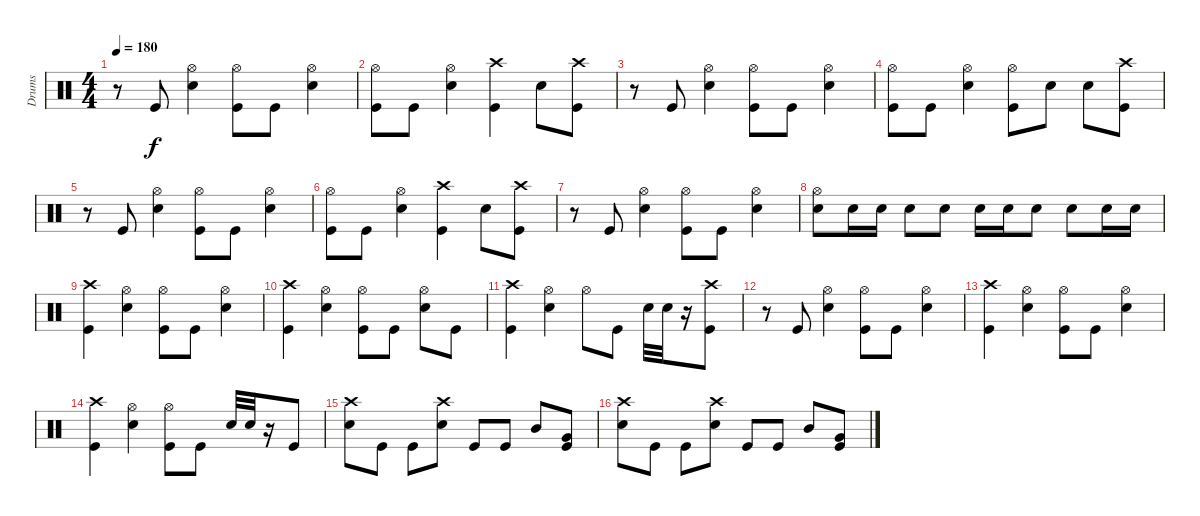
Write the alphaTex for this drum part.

\track ("Drums" "Drums") {instrument percussion}
\staff {score}
\articulation defaults
\ts (4 4)
\tempo 180
\clef neutral
\ks c
r.8{dy f} "Kick (hit)".8 ("Hi-Hat (open)" "Snare (hit) 2").4 ("Hi-Hat (open)" "Kick (hit)").8 "Kick (hit)".8 ("Hi-Hat (open)" "Snare (hit) 2").4 |
("Hi-Hat (open)" "Kick (hit)").8 "Kick (hit)".8 ("Hi-Hat (open)" "Snare (hit) 2").4 ("Crash high (hit)" "Kick (hit)").4 "Snare (hit) 2".8 ("Crash high (hit)" "Kick (hit)").8 |
r.8 "Kick (hit)".8 ("Hi-Hat (open)" "Snare (hit) 2").4 ("Hi-Hat (open)" "Kick (hit)").8 "Kick (hit)".8 ("Hi-Hat (open)" "Snare (hit) 2").4 |
("Hi-Hat (open)" "Kick (hit)").8 "Kick (hit)".8 ("Hi-Hat (open)" "Snare (hit) 2").4 ("Hi-Hat (open)" "Kick (hit)").8 "Snare (hit) 2".8 "Snare (hit) 2".8 ("Crash high (hit)" "Kick (hit)").8 |
r.8 "Kick (hit)".8 ("Hi-Hat (open)" "Snare (hit) 2").4 ("Hi-Hat (open)" "Kick (hit)").8 "Kick (hit)".8 ("Hi-Hat (open)" "Snare (hit) 2").4 |
("Hi-Hat (open)" "Kick (hit)").8 "Kick (hit)".8 ("Hi-Hat (open)" "Snare (hit) 2").4 ("Crash high (hit)" "Kick (hit)").4 "Snare (hit) 2".8 ("Crash high (hit)" "Kick (hit)").8 |
r.8 "Kick (hit)".8 ("Hi-Hat (open)" "Snare (hit) 2").4 ("Hi-Hat (open)" "Kick (hit)").8 "Kick (hit)".8 ("Hi-Hat (open)" "Snare (hit) 2").4 |
("Hi-Hat (open)" "Snare (hit) 2").8 "Snare (hit) 2".16 "Snare (hit) 2".16 "Snare (hit) 2".8 "Snare (hit) 2".8 "Snare (hit) 2".16 "Snare (hit) 2".16 "Snare (hit) 2".8 "Snare (hit) 2".8 "Snare (hit) 2".16 "Snare (hit) 2".16 |
("Crash high (hit)" "Kick (hit)").4 ("Hi-Hat (open)" "Snare (hit) 2").4 ("Hi-Hat (open)" "Kick (hit)").8 "Kick (hit)".8 ("Hi-Hat (open)" "Snare (hit) 2").4 |
("Crash high (hit)" "Kick (hit)").4 ("Hi-Hat (open)" "Snare (hit) 2").4 ("Hi-Hat (open)" "Kick (hit)").8 "Kick (hit)".8 ("Hi-Hat (open)" "Snare (hit) 2").8 "Kick (hit)".8 |
("Crash high (hit)" "Kick (hit)").4 ("Hi-Hat (open)" "Snare (hit) 2").4 "Hi-Hat (open)".8 "Kick (hit)".8 "Snare (hit) 2".32 "Snare (hit) 2".32 r.16 ("Crash high (hit)" "Kick (hit)").8 |
r.8 "Kick (hit)".8 ("Hi-Hat (open)" "Snare (hit) 2").4 ("Hi-Hat (open)" "Kick (hit)").8 "Kick (hit)".8 ("Hi-Hat (open)" "Snare (hit) 2").4 |
("Crash high (hit)" "Kick (hit)").4 ("Hi-Hat (open)" "Snare (hit) 2").4 ("Hi-Hat (open)" "Kick (hit)").8 "Kick (hit)".8 ("Hi-Hat (open)" "Snare (hit) 2").4 |
("Crash high (hit)" "Kick (hit)").4 ("Hi-Hat (open)" "Snare (hit) 2").4 ("Hi-Hat (open)" "Kick (hit)").8 "Kick (hit)".8 "Snare (hit) 2".32 "Snare (hit) 2".32 r.16 "Kick (hit)".8 |
("Crash high (hit)" "Snare (hit) 2").8 "Kick (hit)".8 "Kick (hit)".8 ("Crash high (hit)" "Snare (hit) 2").8 "Kick (hit)".8 "Kick (hit)".8 "Mid Tom (hit)".8 ("Kick (hit)" "Very Low Tom (hit)").8 |
("Crash high (hit)" "Snare (hit) 2").8 "Kick (hit)".8 "Kick (hit)".8 ("Crash high (hit)" "Snare (hit) 2").8 "Kick (hit)".8 "Kick (hit)".8 "Mid Tom (hit)".8 ("Kick (hit)" "Very Low Tom (hit)").8
